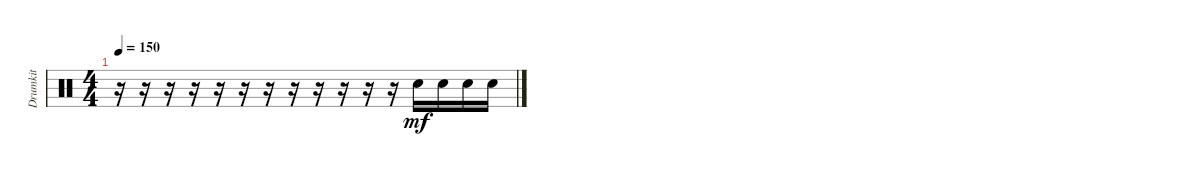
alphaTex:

\track ("Drumkit" "Drumkit") {instrument percussion}
\staff {score}
\articulation defaults
\ts (4 4)
\tempo 150
\clef neutral
\ks c
r.16{dy mf} r.16 r.16 r.16 r.16 r.16 r.16 r.16 r.16 r.16 r.16 r.16 "Snare (hit) 2".16 "Snare (hit) 2".16 "Snare (hit) 2".16 "Snare (hit) 2".16
